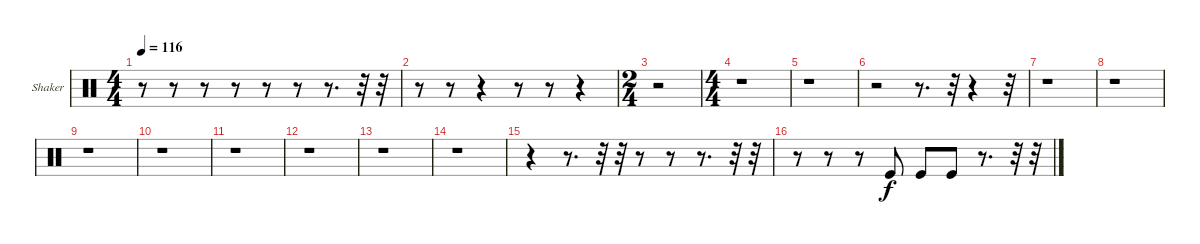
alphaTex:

\bracketExtendMode groupsimilarinstruments
\firstSystemTrackNameOrientation horizontal
\otherSystemsTrackNameOrientation horizontal
\track ("Shaker" "Shaker") {instrument percussion}
\staff {score}
\articulation defaults
\ts (4 4)
\tempo 116
\clef neutral
\ks c
r.8{dy f} r.8 r.8 r.8 r.8 r.8 r.8{d} r.32 r.32 |
r.8 r.8 r.4 r.8 r.8 r.4 |
\ts (2 4)
r.2 |
\ts (4 4)
r.1 |
r.1 |
r.2 r.8{d} r.32 r.4 r.32 |
r.1 |
r.1 |
r.1 |
r.1 |
r.1 |
r.1 |
r.1 |
r.1 |
r.4 r.8{d} r.32 r.32 r.8 r.8 r.8{d} r.32 r.32 |
r.8 r.8 r.8 "Kick (hit)".8 "Kick (hit)".8 "Kick (hit)".8 r.8{d} r.32 r.32
